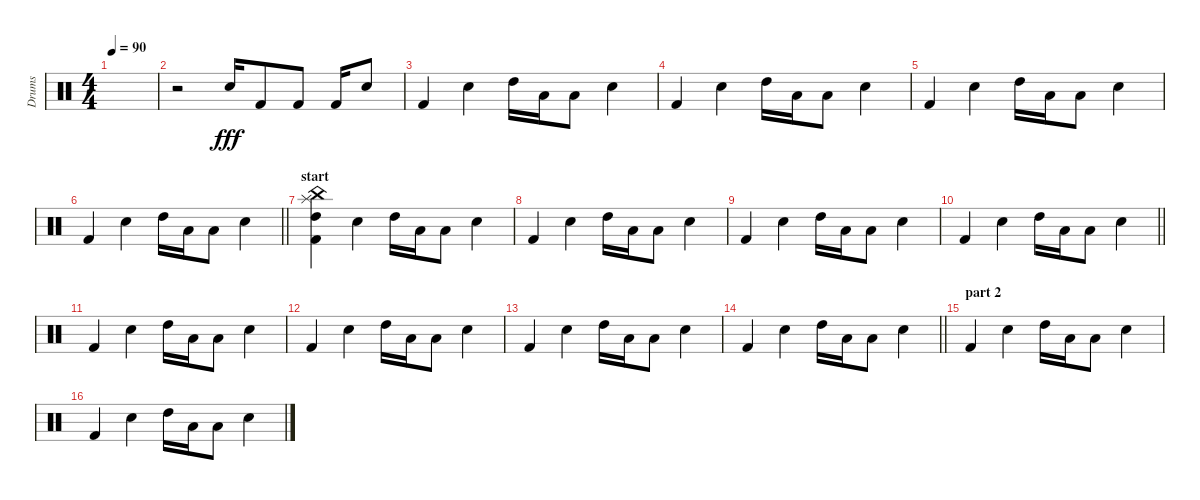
\track ("Drums" "Drums") {instrument percussion}
\staff {score}
\articulation defaults
\ts (4 4)
\tempo 90
\clef neutral
\ks c
|
r.2 "Snare (hit) 2".16{dy fff} "Kick (hit) 2".8 "Kick (hit) 2".8 "Kick (hit) 2".16 "Snare (hit) 2".8 |
"Kick (hit) 2".4 "Snare (hit) 2".4 "High Tom (hit)".16 "Low Tom (hit)".16 "Low Floor Tom (hit)".8 "Snare (hit) 2".4 |
"Kick (hit) 2".4 "Snare (hit) 2".4 "High Tom (hit)".16 "Low Tom (hit)".16 "Low Floor Tom (hit)".8 "Snare (hit) 2".4 |
"Kick (hit) 2".4 "Snare (hit) 2".4 "High Tom (hit)".16 "Low Tom (hit)".16 "Low Floor Tom (hit)".8 "Snare (hit) 2".4 |
\barLineRight lightlight "Kick (hit) 2".4 "Snare (hit) 2".4 "High Tom (hit)".16 "Low Tom (hit)".16 "Low Floor Tom (hit)".8 "Snare (hit) 2".4
|
\section ("" "start")
("Splash (hit)" "China (hit)" "High Tom (hit)" "Kick (hit) 2").4 "Snare (hit) 2".4 "High Tom (hit)".16 "Low Tom (hit)".16 "Low Floor Tom (hit)".8 "Snare (hit) 2".4 |
"Kick (hit) 2".4 "Snare (hit) 2".4 "High Tom (hit)".16 "Low Tom (hit)".16 "Low Floor Tom (hit)".8 "Snare (hit) 2".4 |
"Kick (hit) 2".4 "Snare (hit) 2".4 "High Tom (hit)".16 "Low Tom (hit)".16 "Low Floor Tom (hit)".8 "Snare (hit) 2".4 |
\barLineRight lightlight "Kick (hit) 2".4 "Snare (hit) 2".4 "High Tom (hit)".16 "Low Tom (hit)".16 "Low Floor Tom (hit)".8 "Snare (hit) 2".4
|
"Kick (hit) 2".4 "Snare (hit) 2".4 "High Tom (hit)".16 "Low Tom (hit)".16 "Low Floor Tom (hit)".8 "Snare (hit) 2".4 |
"Kick (hit) 2".4 "Snare (hit) 2".4 "High Tom (hit)".16 "Low Tom (hit)".16 "Low Floor Tom (hit)".8 "Snare (hit) 2".4 |
"Kick (hit) 2".4 "Snare (hit) 2".4 "High Tom (hit)".16 "Low Tom (hit)".16 "Low Floor Tom (hit)".8 "Snare (hit) 2".4 |
\barLineRight lightlight "Kick (hit) 2".4 "Snare (hit) 2".4 "High Tom (hit)".16 "Low Tom (hit)".16 "Low Floor Tom (hit)".8 "Snare (hit) 2".4
|
\section ("" "part 2")
"Kick (hit) 2".4 "Snare (hit) 2".4 "High Tom (hit)".16 "Low Tom (hit)".16 "Low Floor Tom (hit)".8 "Snare (hit) 2".4 |
"Kick (hit) 2".4 "Snare (hit) 2".4 "High Tom (hit)".16 "Low Tom (hit)".16 "Low Floor Tom (hit)".8 "Snare (hit) 2".4
